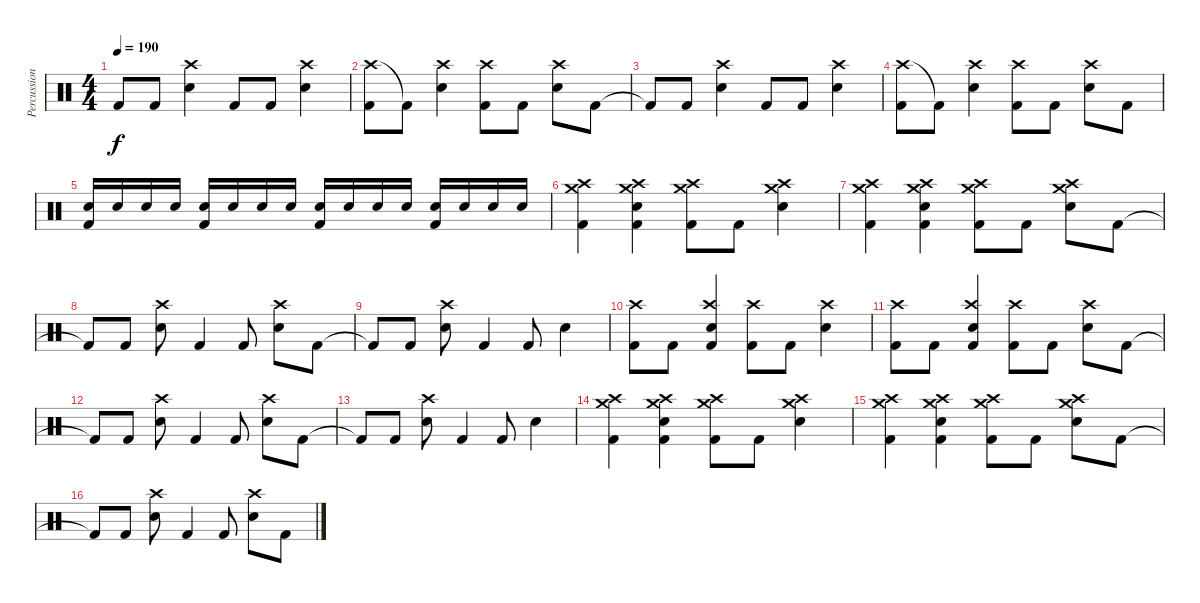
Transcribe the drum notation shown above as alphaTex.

\track ("Percussion" "Percussion") {instrument percussion}
\staff {score}
\articulation defaults
\ts (4 4)
\tempo 190
\clef neutral
\ks c "Kick (hit) 2"{t}.8{dy f} "Kick (hit) 2".8
("Crash high (hit)" "Electric Snare (hit)").4 "Kick (hit) 2".8 "Kick (hit) 2".8 ("Crash high (hit)" "Electric Snare (hit)").4 |
("Crash high (hit)" "Kick (hit) 2").8 "Kick (hit) 2"{t}.8 ("Crash high (hit)" "Electric Snare (hit)").4 ("Crash high (hit)" "Kick (hit) 2").8 "Kick (hit) 2".8 ("Crash high (hit)" "Electric Snare (hit)").8 "Kick (hit) 2".8 |
"Kick (hit) 2"{t}.8 "Kick (hit) 2".8 ("Crash high (hit)" "Electric Snare (hit)").4 "Kick (hit) 2".8 "Kick (hit) 2".8 ("Crash high (hit)" "Electric Snare (hit)").4 |
("Crash high (hit)" "Kick (hit) 2").8 "Kick (hit) 2"{t}.8 ("Crash high (hit)" "Electric Snare (hit)").4 ("Crash high (hit)" "Kick (hit) 2").8 "Kick (hit) 2".8 ("Crash high (hit)" "Electric Snare (hit)").8 "Kick (hit) 2".8 |
("Electric Snare (hit)" "Kick (hit) 2").16 "Electric Snare (hit)".16 "Electric Snare (hit)".16 "Electric Snare (hit)".16 ("Electric Snare (hit)" "Kick (hit) 2").16 "Electric Snare (hit)".16 "Electric Snare (hit)".16 "Electric Snare (hit)".16 ("Electric Snare (hit)" "Kick (hit) 2").16 "Electric Snare (hit)".16 "Electric Snare (hit)".16 "Electric Snare (hit)".16 ("Electric Snare (hit)" "Kick (hit) 2").16 "Electric Snare (hit)".16 "Electric Snare (hit)".16 "Electric Snare (hit)".16 |
("Crash medium (hit)" "Crash high (hit)" "Kick (hit) 2").4 ("Crash medium (hit)" "Crash high (hit)" "Electric Snare (hit)" "Kick (hit) 2").4 ("Crash medium (hit)" "Crash high (hit)" "Kick (hit) 2").8 "Kick (hit) 2".8 ("Crash medium (hit)" "Crash high (hit)" "Electric Snare (hit)").4 |
("Crash medium (hit)" "Crash high (hit)" "Kick (hit) 2").4 ("Crash medium (hit)" "Crash high (hit)" "Electric Snare (hit)" "Kick (hit) 2").4 ("Crash medium (hit)" "Crash high (hit)" "Kick (hit) 2").8 "Kick (hit) 2".8 ("Crash medium (hit)" "Crash high (hit)" "Electric Snare (hit)").8 "Kick (hit) 2".8 |
"Kick (hit) 2"{t}.8 "Kick (hit) 2".8 ("Crash high (hit)" "Electric Snare (hit)").8 "Kick (hit) 2".4 "Kick (hit) 2".8 ("Crash high (hit)" "Electric Snare (hit)").8 "Kick (hit) 2".8 |
"Kick (hit) 2"{t}.8 "Kick (hit) 2".8 ("Crash high (hit)" "Electric Snare (hit)").8 "Kick (hit) 2".4 "Kick (hit) 2".8 "Electric Snare (hit)".4 |
("Crash high (hit)" "Kick (hit) 2").8 "Kick (hit) 2".8 ("Crash high (hit)" "Electric Snare (hit)" "Kick (hit) 2").4 ("Crash high (hit)" "Kick (hit) 2").8 "Kick (hit) 2".8 ("Crash high (hit)" "Electric Snare (hit)").4 |
("Crash high (hit)" "Kick (hit) 2").8 "Kick (hit) 2".8 ("Crash high (hit)" "Electric Snare (hit)" "Kick (hit) 2").4 ("Crash high (hit)" "Kick (hit) 2").8 "Kick (hit) 2".8 ("Crash high (hit)" "Electric Snare (hit)").8 "Kick (hit) 2".8 |
"Kick (hit) 2"{t}.8 "Kick (hit) 2".8 ("Crash high (hit)" "Electric Snare (hit)").8 "Kick (hit) 2".4 "Kick (hit) 2".8 ("Crash high (hit)" "Electric Snare (hit)").8 "Kick (hit) 2".8 |
"Kick (hit) 2"{t}.8 "Kick (hit) 2".8 ("Crash high (hit)" "Electric Snare (hit)").8 "Kick (hit) 2".4 "Kick (hit) 2".8 "Electric Snare (hit)".4 |
("Crash medium (hit)" "Crash high (hit)" "Kick (hit) 2").4 ("Crash medium (hit)" "Crash high (hit)" "Electric Snare (hit)" "Kick (hit) 2").4 ("Crash medium (hit)" "Crash high (hit)" "Kick (hit) 2").8 "Kick (hit) 2".8 ("Crash medium (hit)" "Crash high (hit)" "Electric Snare (hit)").4 |
("Crash medium (hit)" "Crash high (hit)" "Kick (hit) 2").4 ("Crash medium (hit)" "Crash high (hit)" "Electric Snare (hit)" "Kick (hit) 2").4 ("Crash medium (hit)" "Crash high (hit)" "Kick (hit) 2").8 "Kick (hit) 2".8 ("Crash medium (hit)" "Crash high (hit)" "Electric Snare (hit)").8 "Kick (hit) 2".8 |
"Kick (hit) 2"{t}.8 "Kick (hit) 2".8 ("Crash high (hit)" "Electric Snare (hit)").8 "Kick (hit) 2".4 "Kick (hit) 2".8 ("Crash high (hit)" "Electric Snare (hit)").8 "Kick (hit) 2".8
